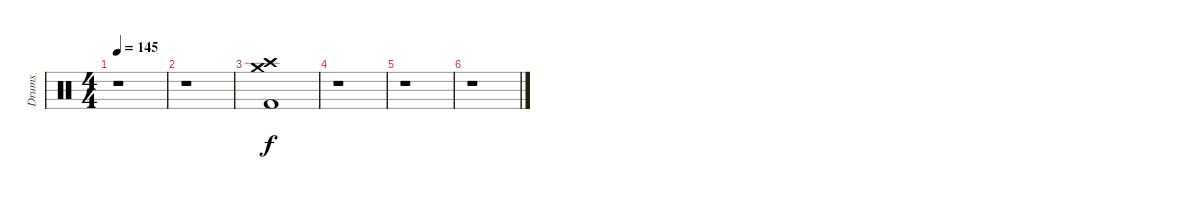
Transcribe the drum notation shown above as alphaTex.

\track ("Drums" "Drums") {instrument percussion}
\staff {score}
\articulation defaults
\ts (4 4)
\tempo 145
\clef neutral
\ks c
r.1{dy f} |
r.1 |
("Crash medium (hit)" "Crash high (hit)" "Kick (hit) 2").1 |
r.1 |
r.1 |
r.1
